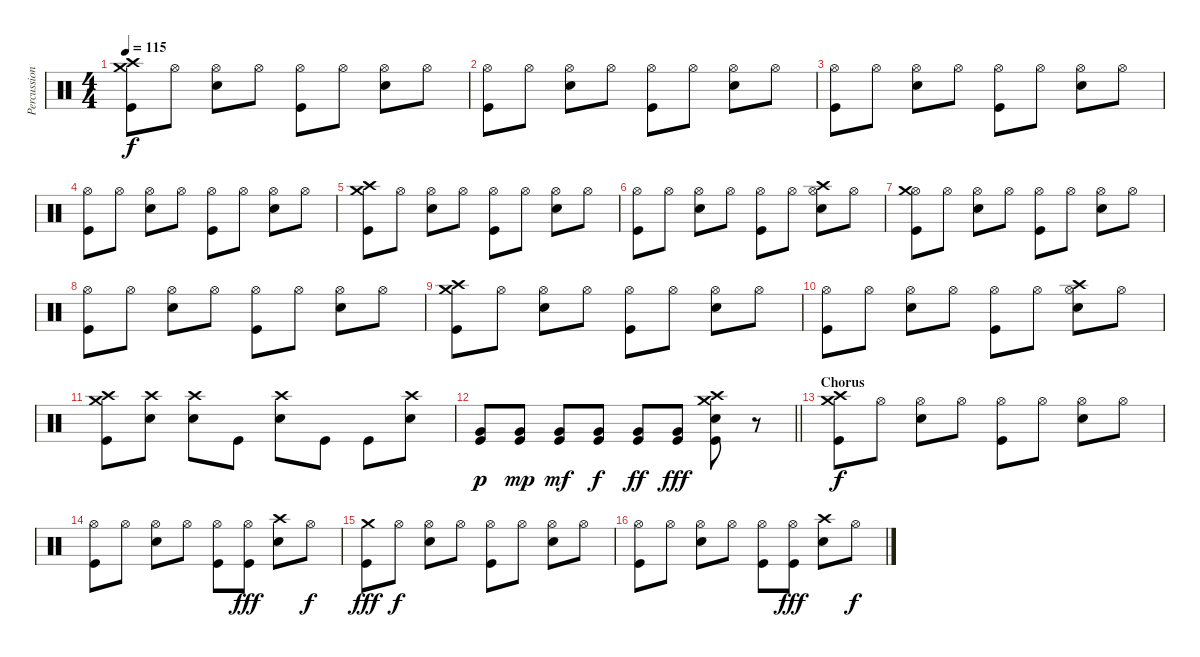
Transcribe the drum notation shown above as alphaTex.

\track ("Percussion" "Percussion") {instrument percussion}
\staff {score}
\articulation defaults
\ts (4 4)
\tempo 115
\clef neutral
\ks c
("Crash high (hit)" "Crash medium (hit)" "Kick (hit)").8{dy f} "Hi-Hat (open)".8 ("Hi-Hat (open)" "Electric Snare (hit)").8 "Hi-Hat (open)".8 ("Hi-Hat (open)" "Kick (hit)").8 "Hi-Hat (open)".8 ("Hi-Hat (open)" "Electric Snare (hit)").8 "Hi-Hat (open)".8 |
("Hi-Hat (open)" "Kick (hit)").8 "Hi-Hat (open)".8 ("Hi-Hat (open)" "Electric Snare (hit)").8 "Hi-Hat (open)".8 ("Hi-Hat (open)" "Kick (hit)").8 "Hi-Hat (open)".8 ("Hi-Hat (open)" "Electric Snare (hit)").8 "Hi-Hat (open)".8 |
("Hi-Hat (open)" "Kick (hit)").8 "Hi-Hat (open)".8 ("Hi-Hat (open)" "Electric Snare (hit)").8 "Hi-Hat (open)".8 ("Hi-Hat (open)" "Kick (hit)").8 "Hi-Hat (open)".8 ("Hi-Hat (open)" "Electric Snare (hit)").8 "Hi-Hat (open)".8 |
("Hi-Hat (open)" "Kick (hit)").8 "Hi-Hat (open)".8 ("Hi-Hat (open)" "Electric Snare (hit)").8 "Hi-Hat (open)".8 ("Hi-Hat (open)" "Kick (hit)").8 "Hi-Hat (open)".8 ("Hi-Hat (open)" "Electric Snare (hit)").8 "Hi-Hat (open)".8 |
("Crash high (hit)" "Crash medium (hit)" "Kick (hit)").8 "Hi-Hat (open)".8 ("Hi-Hat (open)" "Electric Snare (hit)").8 "Hi-Hat (open)".8 ("Hi-Hat (open)" "Kick (hit)").8 "Hi-Hat (open)".8 ("Hi-Hat (open)" "Electric Snare (hit)").8 "Hi-Hat (open)".8 |
("Hi-Hat (open)" "Kick (hit)").8 "Hi-Hat (open)".8 ("Hi-Hat (open)" "Electric Snare (hit)").8 "Hi-Hat (open)".8 ("Hi-Hat (open)" "Kick (hit)").8 "Hi-Hat (open)".8 ("Hi-Hat (open)" "Crash high (hit)" "Electric Snare (hit)").8 "Hi-Hat (open)".8 |
("Hi-Hat (open)" "Crash medium (hit)" "Kick (hit)").8 "Hi-Hat (open)".8 ("Hi-Hat (open)" "Electric Snare (hit)").8 "Hi-Hat (open)".8 ("Hi-Hat (open)" "Kick (hit)").8 "Hi-Hat (open)".8 ("Hi-Hat (open)" "Electric Snare (hit)").8 "Hi-Hat (open)".8 |
("Hi-Hat (open)" "Kick (hit)").8 "Hi-Hat (open)".8 ("Hi-Hat (open)" "Electric Snare (hit)").8 "Hi-Hat (open)".8 ("Hi-Hat (open)" "Kick (hit)").8 "Hi-Hat (open)".8 ("Hi-Hat (open)" "Electric Snare (hit)").8 "Hi-Hat (open)".8 |
("Crash high (hit)" "Crash medium (hit)" "Kick (hit)").8 "Hi-Hat (open)".8 ("Hi-Hat (open)" "Electric Snare (hit)").8 "Hi-Hat (open)".8 ("Hi-Hat (open)" "Kick (hit)").8 "Hi-Hat (open)".8 ("Hi-Hat (open)" "Electric Snare (hit)").8 "Hi-Hat (open)".8 |
("Hi-Hat (open)" "Kick (hit)").8 "Hi-Hat (open)".8 ("Hi-Hat (open)" "Electric Snare (hit)").8 "Hi-Hat (open)".8 ("Hi-Hat (open)" "Kick (hit)").8 "Hi-Hat (open)".8 ("Hi-Hat (open)" "Crash high (hit)" "Electric Snare (hit)").8 "Hi-Hat (open)".8 |
("Crash high (hit)" "Crash medium (hit)" "Kick (hit)").8 ("Crash high (hit)" "Electric Snare (hit)").8 ("Crash high (hit)" "Electric Snare (hit)").8 "Kick (hit)".8 ("Crash high (hit)" "Electric Snare (hit)").8 "Kick (hit)".8 "Kick (hit)".8 ("Crash high (hit)" "Electric Snare (hit)").8 |
\barLineRight lightlight
("Very Low Tom (hit)" "Kick (hit)").8{dy p} ("Very Low Tom (hit)" "Kick (hit)").8{dy mp} ("Very Low Tom (hit)" "Kick (hit)").8{dy mf} ("Very Low Tom (hit)" "Kick (hit)").8{dy f} ("Very Low Tom (hit)" "Kick (hit)").8{dy ff} ("Very Low Tom (hit)" "Kick (hit)").8{dy fff} ("Kick (hit)" "Crash medium (hit)" "Crash high (hit)" "Electric Snare (hit)").8 r.8 |
\section ("" "Chorus")
("Crash high (hit)" "Crash medium (hit)" "Kick (hit)").8{dy f} "Hi-Hat (open)".8 ("Hi-Hat (open)" "Electric Snare (hit)").8 "Hi-Hat (open)".8 ("Hi-Hat (open)" "Kick (hit)").8 "Hi-Hat (open)".8 ("Hi-Hat (open)" "Electric Snare (hit)").8 "Hi-Hat (open)".8 |
("Hi-Hat (open)" "Kick (hit)").8 "Hi-Hat (open)".8 ("Hi-Hat (open)" "Electric Snare (hit)").8 "Hi-Hat (open)".8 ("Hi-Hat (open)" "Kick (hit)").8 ("Hi-Hat (open)" "Kick (hit)").8{dy fff} ("Crash high (hit)" "Electric Snare (hit)").8 "Hi-Hat (open)".8{dy f} |
("Crash medium (hit)" "Kick (hit)").8{dy fff} "Hi-Hat (open)".8{dy f} ("Hi-Hat (open)" "Electric Snare (hit)").8 "Hi-Hat (open)".8 ("Hi-Hat (open)" "Kick (hit)").8 "Hi-Hat (open)".8 ("Hi-Hat (open)" "Electric Snare (hit)").8 "Hi-Hat (open)".8 |
("Hi-Hat (open)" "Kick (hit)").8 "Hi-Hat (open)".8 ("Hi-Hat (open)" "Electric Snare (hit)").8 "Hi-Hat (open)".8 ("Hi-Hat (open)" "Kick (hit)").8 ("Hi-Hat (open)" "Kick (hit)").8{dy fff} ("Crash high (hit)" "Electric Snare (hit)").8 "Hi-Hat (open)".8{dy f}
